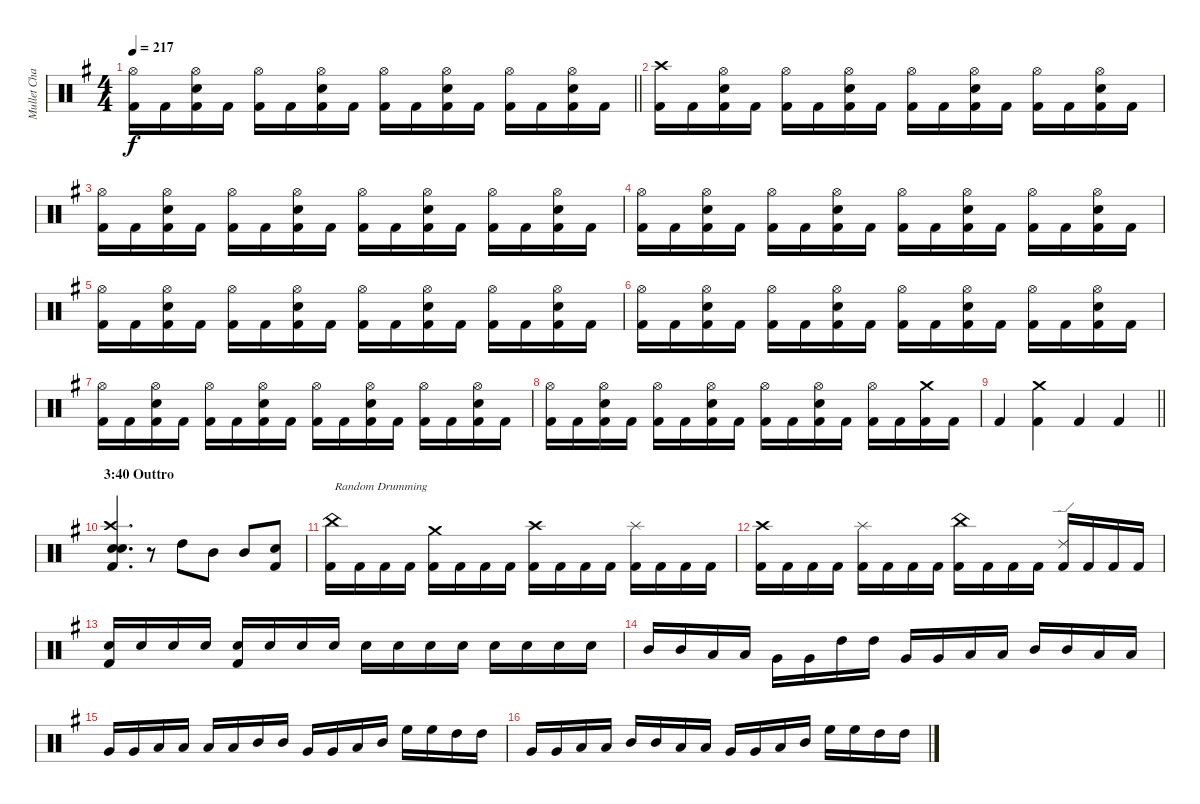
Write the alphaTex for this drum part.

\track ("Mullet Chad" "Mullet Cha") {instrument percussion}
\staff {score}
\articulation defaults
\ts (4 4)
\tempo 217
\clef neutral
\barLineRight lightlight
\ks g
("Hi-Hat (open)" "Kick (hit) 2").16{dy f} "Kick (hit) 2".16 ("Hi-Hat (open)" "Snare (hit) 2" "Kick (hit) 2").16 "Kick (hit) 2".16 ("Hi-Hat (open)" "Kick (hit) 2").16 "Kick (hit) 2".16 ("Hi-Hat (open)" "Snare (hit) 2" "Kick (hit) 2").16 "Kick (hit) 2".16 ("Hi-Hat (open)" "Kick (hit) 2").16 "Kick (hit) 2".16 ("Hi-Hat (open)" "Snare (hit) 2" "Kick (hit) 2").16 "Kick (hit) 2".16 ("Hi-Hat (open)" "Kick (hit) 2").16 "Kick (hit) 2".16 ("Hi-Hat (open)" "Snare (hit) 2" "Kick (hit) 2").16 "Kick (hit) 2".16 |
("Crash high (hit)" "Kick (hit) 2").16 "Kick (hit) 2".16 ("Hi-Hat (open)" "Snare (hit) 2" "Kick (hit) 2").16 "Kick (hit) 2".16 ("Hi-Hat (open)" "Kick (hit) 2").16 "Kick (hit) 2".16 ("Hi-Hat (open)" "Snare (hit) 2" "Kick (hit) 2").16 "Kick (hit) 2".16 ("Hi-Hat (open)" "Kick (hit) 2").16 "Kick (hit) 2".16 ("Hi-Hat (open)" "Snare (hit) 2" "Kick (hit) 2").16 "Kick (hit) 2".16 ("Hi-Hat (open)" "Kick (hit) 2").16 "Kick (hit) 2".16 ("Hi-Hat (open)" "Snare (hit) 2" "Kick (hit) 2").16 "Kick (hit) 2".16 |
("Hi-Hat (open)" "Kick (hit) 2").16 "Kick (hit) 2".16 ("Hi-Hat (open)" "Snare (hit) 2" "Kick (hit) 2").16 "Kick (hit) 2".16 ("Hi-Hat (open)" "Kick (hit) 2").16 "Kick (hit) 2".16 ("Hi-Hat (open)" "Snare (hit) 2" "Kick (hit) 2").16 "Kick (hit) 2".16 ("Hi-Hat (open)" "Kick (hit) 2").16 "Kick (hit) 2".16 ("Hi-Hat (open)" "Snare (hit) 2" "Kick (hit) 2").16 "Kick (hit) 2".16 ("Hi-Hat (open)" "Kick (hit) 2").16 "Kick (hit) 2".16 ("Hi-Hat (open)" "Snare (hit) 2" "Kick (hit) 2").16 "Kick (hit) 2".16 |
("Hi-Hat (open)" "Kick (hit) 2").16 "Kick (hit) 2".16 ("Hi-Hat (open)" "Snare (hit) 2" "Kick (hit) 2").16 "Kick (hit) 2".16 ("Hi-Hat (open)" "Kick (hit) 2").16 "Kick (hit) 2".16 ("Hi-Hat (open)" "Snare (hit) 2" "Kick (hit) 2").16 "Kick (hit) 2".16 ("Hi-Hat (open)" "Kick (hit) 2").16 "Kick (hit) 2".16 ("Hi-Hat (open)" "Snare (hit) 2" "Kick (hit) 2").16 "Kick (hit) 2".16 ("Hi-Hat (open)" "Kick (hit) 2").16 "Kick (hit) 2".16 ("Hi-Hat (open)" "Snare (hit) 2" "Kick (hit) 2").16 "Kick (hit) 2".16 |
("Hi-Hat (open)" "Kick (hit) 2").16 "Kick (hit) 2".16 ("Hi-Hat (open)" "Snare (hit) 2" "Kick (hit) 2").16 "Kick (hit) 2".16 ("Hi-Hat (open)" "Kick (hit) 2").16 "Kick (hit) 2".16 ("Hi-Hat (open)" "Snare (hit) 2" "Kick (hit) 2").16 "Kick (hit) 2".16 ("Hi-Hat (open)" "Kick (hit) 2").16 "Kick (hit) 2".16 ("Hi-Hat (open)" "Snare (hit) 2" "Kick (hit) 2").16 "Kick (hit) 2".16 ("Hi-Hat (open)" "Kick (hit) 2").16 "Kick (hit) 2".16 ("Hi-Hat (open)" "Snare (hit) 2" "Kick (hit) 2").16 "Kick (hit) 2".16 |
("Hi-Hat (open)" "Kick (hit) 2").16 "Kick (hit) 2".16 ("Hi-Hat (open)" "Snare (hit) 2" "Kick (hit) 2").16 "Kick (hit) 2".16 ("Hi-Hat (open)" "Kick (hit) 2").16 "Kick (hit) 2".16 ("Hi-Hat (open)" "Snare (hit) 2" "Kick (hit) 2").16 "Kick (hit) 2".16 ("Hi-Hat (open)" "Kick (hit) 2").16 "Kick (hit) 2".16 ("Hi-Hat (open)" "Snare (hit) 2" "Kick (hit) 2").16 "Kick (hit) 2".16 ("Hi-Hat (open)" "Kick (hit) 2").16 "Kick (hit) 2".16 ("Hi-Hat (open)" "Snare (hit) 2" "Kick (hit) 2").16 "Kick (hit) 2".16 |
("Hi-Hat (open)" "Kick (hit) 2").16 "Kick (hit) 2".16 ("Hi-Hat (open)" "Snare (hit) 2" "Kick (hit) 2").16 "Kick (hit) 2".16 ("Hi-Hat (open)" "Kick (hit) 2").16 "Kick (hit) 2".16 ("Hi-Hat (open)" "Snare (hit) 2" "Kick (hit) 2").16 "Kick (hit) 2".16 ("Hi-Hat (open)" "Kick (hit) 2").16 "Kick (hit) 2".16 ("Hi-Hat (open)" "Snare (hit) 2" "Kick (hit) 2").16 "Kick (hit) 2".16 ("Hi-Hat (open)" "Kick (hit) 2").16 "Kick (hit) 2".16 ("Hi-Hat (open)" "Snare (hit) 2" "Kick (hit) 2").16 "Kick (hit) 2".16 |
("Hi-Hat (open)" "Kick (hit) 2").16 "Kick (hit) 2".16 ("Hi-Hat (open)" "Snare (hit) 2" "Kick (hit) 2").16 "Kick (hit) 2".16 ("Hi-Hat (open)" "Kick (hit) 2").16 "Kick (hit) 2".16 ("Hi-Hat (open)" "Snare (hit) 2" "Kick (hit) 2").16 "Kick (hit) 2".16 ("Hi-Hat (open)" "Kick (hit) 2").16 "Kick (hit) 2".16 ("Hi-Hat (open)" "Snare (hit) 2" "Kick (hit) 2").16 "Kick (hit) 2".16 ("Hi-Hat (open)" "Kick (hit) 2").16 "Kick (hit) 2".16 ("Crash medium (hit)" "Kick (hit) 2").16 "Kick (hit) 2".16 |
\barLineRight lightlight "Kick (hit) 2".4
("Crash medium (hit)" "Kick (hit) 2").4 "Kick (hit) 2".4 "Kick (hit) 2".4 |
\section ("" "3:40 Outtro")
("Hand Clap (hit)" "Snare (hit) 2" "Crash high (hit)" "Kick (hit) 2").4{d} r.8 "High Tom (hit)".8 "Mid Tom (hit)".8 "Mid Tom (hit)".8 ("Snare (hit) 2" "Kick (hit) 2").8 |
("China (hit)" "Kick (hit) 2").16{txt "Random Drumming"} "Kick (hit) 2".16 "Kick (hit) 2".16 "Kick (hit) 2".16 ("Crash medium (hit)" "Kick (hit) 2").16 "Kick (hit) 2".16 "Kick (hit) 2".16 "Kick (hit) 2".16 ("Crash high (hit)" "Kick (hit) 2").16 "Kick (hit) 2".16 "Kick (hit) 2".16 "Kick (hit) 2".16 ("Splash (hit)" "Kick (hit) 2").16 "Kick (hit) 2".16 "Kick (hit) 2".16 "Kick (hit) 2".16 |
("Crash high (hit)" "Kick (hit) 2").16 "Kick (hit) 2".16 "Kick (hit) 2".16 "Kick (hit) 2".16 ("Splash (hit)" "Kick (hit) 2").16 "Kick (hit) 2".16 "Kick (hit) 2".16 "Kick (hit) 2".16 ("China (hit)" "Kick (hit) 2").16 "Kick (hit) 2".16 "Kick (hit) 2".16 "Kick (hit) 2".16 ("Ride (edge) 2" "Kick (hit) 2").16 "Kick (hit) 2".16 "Kick (hit) 2".16 "Kick (hit) 2".16 |
("Snare (hit) 2" "Kick (hit) 2").16 "Snare (hit) 2".16 "Snare (hit) 2".16 "Snare (hit) 2".16 ("Snare (hit) 2" "Kick (hit) 2").16 "Snare (hit) 2".16 "Snare (hit) 2".16 "Snare (hit) 2".16 "Snare (hit) 2".16 "Snare (hit) 2".16 "Snare (hit) 2".16 "Snare (hit) 2".16 "Snare (hit) 2".16 "Snare (hit) 2".16 "Snare (hit) 2".16 "Snare (hit) 2".16 |
"Mid Tom (hit)".16 "Mid Tom (hit)".16 "Low Tom (hit)".16 "Low Tom (hit)".16 "Very Low Tom (hit)".16 "Very Low Tom (hit)".16 "High Tom (hit)".16 "High Tom (hit)".16 "Very Low Tom (hit)".16 "Very Low Tom (hit)".16 "Low Tom (hit)".16 "Low Tom (hit)".16 "Mid Tom (hit)".16 "Mid Tom (hit)".16 "Low Floor Tom (hit)".16 "Low Floor Tom (hit)".16 |
"Very Low Tom (hit)".16 "Very Low Tom (hit)".16 "Low Floor Tom (hit)".16 "Low Floor Tom (hit)".16 "Low Tom (hit)".16 "Low Tom (hit)".16 "Mid Tom (hit)".16 "Mid Tom (hit)".16 "Very Low Tom (hit)".16 "Very Low Tom (hit)".16 "Low Tom (hit)".16 "Mid Tom (hit)".16 "High Floor Tom (hit)".16 "High Floor Tom (hit)".16 "High Tom (hit)".16 "High Tom (hit)".16 |
"Very Low Tom (hit)".16 "Very Low Tom (hit)".16 "Low Tom (hit)".16 "Low Tom (hit)".16 "Mid Tom (hit)".16 "Mid Tom (hit)".16 "Low Floor Tom (hit)".16 "Low Floor Tom (hit)".16 "Very Low Tom (hit)".16 "Very Low Tom (hit)".16 "Low Tom (hit)".16 "Mid Tom (hit)".16 "High Floor Tom (hit)".16 "High Floor Tom (hit)".16 "High Tom (hit)".16 "High Tom (hit)".16
